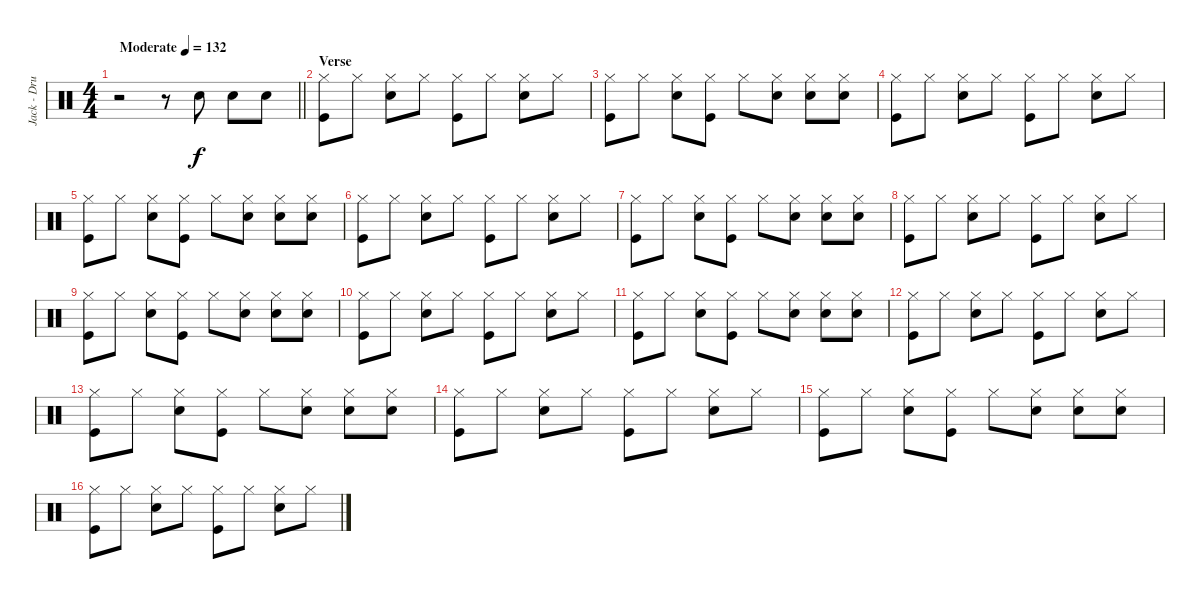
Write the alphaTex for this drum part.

\track ("Jack - Drums" "Jack - Dru") {instrument percussion}
\staff {score}
\articulation defaults
\ts (4 4)
\tempo (132 "Moderate")
\clef neutral
\barLineRight lightlight
\ks c
r.2{dy f} r.8 "Snare (hit) 2".8 "Snare (hit) 2".8 "Snare (hit) 2".8 |
\section ("" "Verse")
("Hi-Hat (closed)" "Kick (hit)").8 "Hi-Hat (closed)".8 ("Hi-Hat (closed)" "Snare (hit) 2").8 "Hi-Hat (closed)".8 ("Hi-Hat (closed)" "Kick (hit)").8 "Hi-Hat (closed)".8 ("Hi-Hat (closed)" "Snare (hit) 2").8 "Hi-Hat (closed)".8 |
("Hi-Hat (closed)" "Kick (hit)").8 "Hi-Hat (closed)".8 ("Hi-Hat (closed)" "Snare (hit) 2").8 ("Hi-Hat (closed)" "Kick (hit)").8 "Hi-Hat (closed)".8 ("Hi-Hat (closed)" "Snare (hit) 2").8 ("Hi-Hat (closed)" "Snare (hit) 2").8 ("Hi-Hat (closed)" "Snare (hit) 2").8 |
("Hi-Hat (closed)" "Kick (hit)").8 "Hi-Hat (closed)".8 ("Hi-Hat (closed)" "Snare (hit) 2").8 "Hi-Hat (closed)".8 ("Hi-Hat (closed)" "Kick (hit)").8 "Hi-Hat (closed)".8 ("Hi-Hat (closed)" "Snare (hit) 2").8 "Hi-Hat (closed)".8 |
("Hi-Hat (closed)" "Kick (hit)").8 "Hi-Hat (closed)".8 ("Hi-Hat (closed)" "Snare (hit) 2").8 ("Hi-Hat (closed)" "Kick (hit)").8 "Hi-Hat (closed)".8 ("Hi-Hat (closed)" "Snare (hit) 2").8 ("Hi-Hat (closed)" "Snare (hit) 2").8 ("Hi-Hat (closed)" "Snare (hit) 2").8 |
("Hi-Hat (closed)" "Kick (hit)").8 "Hi-Hat (closed)".8 ("Hi-Hat (closed)" "Snare (hit) 2").8 "Hi-Hat (closed)".8 ("Hi-Hat (closed)" "Kick (hit)").8 "Hi-Hat (closed)".8 ("Hi-Hat (closed)" "Snare (hit) 2").8 "Hi-Hat (closed)".8 |
("Hi-Hat (closed)" "Kick (hit)").8 "Hi-Hat (closed)".8 ("Hi-Hat (closed)" "Snare (hit) 2").8 ("Hi-Hat (closed)" "Kick (hit)").8 "Hi-Hat (closed)".8 ("Hi-Hat (closed)" "Snare (hit) 2").8 ("Hi-Hat (closed)" "Snare (hit) 2").8 ("Hi-Hat (closed)" "Snare (hit) 2").8 |
("Hi-Hat (closed)" "Kick (hit)").8 "Hi-Hat (closed)".8 ("Hi-Hat (closed)" "Snare (hit) 2").8 "Hi-Hat (closed)".8 ("Hi-Hat (closed)" "Kick (hit)").8 "Hi-Hat (closed)".8 ("Hi-Hat (closed)" "Snare (hit) 2").8 "Hi-Hat (closed)".8 |
("Hi-Hat (closed)" "Kick (hit)").8 "Hi-Hat (closed)".8 ("Hi-Hat (closed)" "Snare (hit) 2").8 ("Hi-Hat (closed)" "Kick (hit)").8 "Hi-Hat (closed)".8 ("Hi-Hat (closed)" "Snare (hit) 2").8 ("Hi-Hat (closed)" "Snare (hit) 2").8 ("Hi-Hat (closed)" "Snare (hit) 2").8 |
("Hi-Hat (closed)" "Kick (hit)").8 "Hi-Hat (closed)".8 ("Hi-Hat (closed)" "Snare (hit) 2").8 "Hi-Hat (closed)".8 ("Hi-Hat (closed)" "Kick (hit)").8 "Hi-Hat (closed)".8 ("Hi-Hat (closed)" "Snare (hit) 2").8 "Hi-Hat (closed)".8 |
("Hi-Hat (closed)" "Kick (hit)").8 "Hi-Hat (closed)".8 ("Hi-Hat (closed)" "Snare (hit) 2").8 ("Hi-Hat (closed)" "Kick (hit)").8 "Hi-Hat (closed)".8 ("Hi-Hat (closed)" "Snare (hit) 2").8 ("Hi-Hat (closed)" "Snare (hit) 2").8 ("Hi-Hat (closed)" "Snare (hit) 2").8 |
("Hi-Hat (closed)" "Kick (hit)").8 "Hi-Hat (closed)".8 ("Hi-Hat (closed)" "Snare (hit) 2").8 "Hi-Hat (closed)".8 ("Hi-Hat (closed)" "Kick (hit)").8 "Hi-Hat (closed)".8 ("Hi-Hat (closed)" "Snare (hit) 2").8 "Hi-Hat (closed)".8 |
("Hi-Hat (closed)" "Kick (hit)").8 "Hi-Hat (closed)".8 ("Hi-Hat (closed)" "Snare (hit) 2").8 ("Hi-Hat (closed)" "Kick (hit)").8 "Hi-Hat (closed)".8 ("Hi-Hat (closed)" "Snare (hit) 2").8 ("Hi-Hat (closed)" "Snare (hit) 2").8 ("Hi-Hat (closed)" "Snare (hit) 2").8 |
("Hi-Hat (closed)" "Kick (hit)").8 "Hi-Hat (closed)".8 ("Hi-Hat (closed)" "Snare (hit) 2").8 "Hi-Hat (closed)".8 ("Hi-Hat (closed)" "Kick (hit)").8 "Hi-Hat (closed)".8 ("Hi-Hat (closed)" "Snare (hit) 2").8 "Hi-Hat (closed)".8 |
("Hi-Hat (closed)" "Kick (hit)").8 "Hi-Hat (closed)".8 ("Hi-Hat (closed)" "Snare (hit) 2").8 ("Hi-Hat (closed)" "Kick (hit)").8 "Hi-Hat (closed)".8 ("Hi-Hat (closed)" "Snare (hit) 2").8 ("Hi-Hat (closed)" "Snare (hit) 2").8 ("Hi-Hat (closed)" "Snare (hit) 2").8 |
("Hi-Hat (closed)" "Kick (hit)").8 "Hi-Hat (closed)".8 ("Hi-Hat (closed)" "Snare (hit) 2").8 "Hi-Hat (closed)".8 ("Hi-Hat (closed)" "Kick (hit)").8 "Hi-Hat (closed)".8 ("Hi-Hat (closed)" "Snare (hit) 2").8 "Hi-Hat (closed)".8
